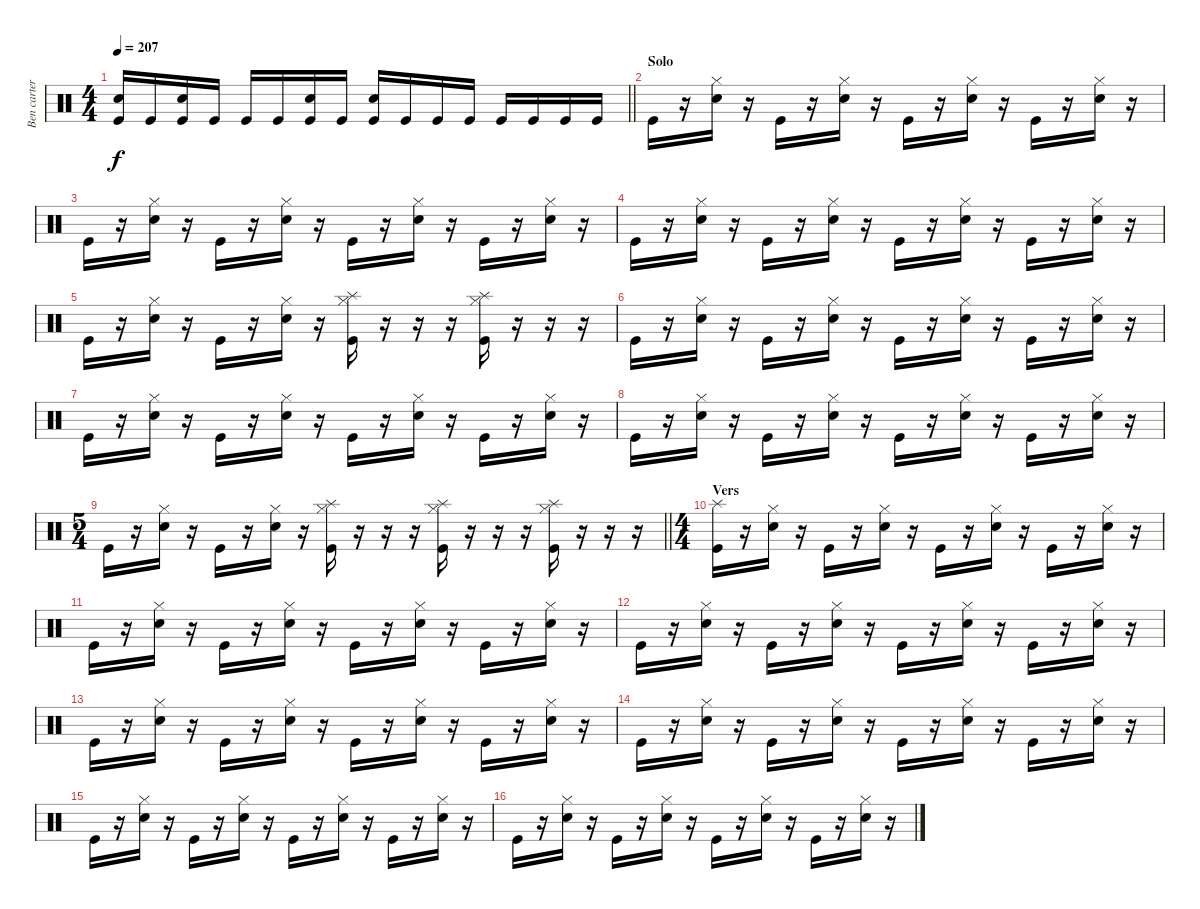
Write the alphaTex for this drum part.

\track ("Ben carter" "Ben carter") {instrument percussion}
\staff {score}
\articulation defaults
\ts (4 4)
\tempo 207
\clef neutral
\barLineRight lightlight
\ks c
("Snare (hit) 2" "Kick (hit)").16{dy f} "Kick (hit)".16 ("Snare (hit) 2" "Kick (hit)").16 "Kick (hit)".16 "Kick (hit)".16 "Kick (hit)".16 ("Snare (hit) 2" "Kick (hit)").16 "Kick (hit)".16 ("Snare (hit) 2" "Kick (hit)").16 "Kick (hit)".16 "Kick (hit)".16 "Kick (hit)".16 "Kick (hit)".16 "Kick (hit)".16 "Kick (hit)".16 "Kick (hit)".16 |
\section ("" "Solo")
"Kick (hit)".16 r.16 ("Hi-Hat (closed)" "Electric Snare (hit)").16 r.16 "Kick (hit)".16 r.16 ("Hi-Hat (closed)" "Electric Snare (hit)").16 r.16 "Kick (hit)".16 r.16 ("Hi-Hat (closed)" "Electric Snare (hit)").16 r.16 "Kick (hit)".16 r.16 ("Hi-Hat (closed)" "Electric Snare (hit)").16 r.16 |
"Kick (hit)".16 r.16 ("Hi-Hat (closed)" "Electric Snare (hit)").16 r.16 "Kick (hit)".16 r.16 ("Hi-Hat (closed)" "Electric Snare (hit)").16 r.16 "Kick (hit)".16 r.16 ("Hi-Hat (closed)" "Electric Snare (hit)").16 r.16 "Kick (hit)".16 r.16 ("Hi-Hat (closed)" "Electric Snare (hit)").16 r.16 |
"Kick (hit)".16 r.16 ("Hi-Hat (closed)" "Electric Snare (hit)").16 r.16 "Kick (hit)".16 r.16 ("Hi-Hat (closed)" "Electric Snare (hit)").16 r.16 "Kick (hit)".16 r.16 ("Hi-Hat (closed)" "Electric Snare (hit)").16 r.16 "Kick (hit)".16 r.16 ("Hi-Hat (closed)" "Electric Snare (hit)").16 r.16 |
"Kick (hit)".16 r.16 ("Hi-Hat (closed)" "Electric Snare (hit)").16 r.16 "Kick (hit)".16 r.16 ("Hi-Hat (closed)" "Electric Snare (hit)").16 r.16 ("Hi-Hat (closed)" "Splash (hit)" "Kick (hit)").16 r.16 r.16 r.16 ("Hi-Hat (closed)" "Splash (hit)" "Kick (hit)").16 r.16 r.16 r.16 |
"Kick (hit)".16 r.16 ("Hi-Hat (closed)" "Electric Snare (hit)").16 r.16 "Kick (hit)".16 r.16 ("Hi-Hat (closed)" "Electric Snare (hit)").16 r.16 "Kick (hit)".16 r.16 ("Hi-Hat (closed)" "Electric Snare (hit)").16 r.16 "Kick (hit)".16 r.16 ("Hi-Hat (closed)" "Electric Snare (hit)").16 r.16 |
"Kick (hit)".16 r.16 ("Hi-Hat (closed)" "Electric Snare (hit)").16 r.16 "Kick (hit)".16 r.16 ("Hi-Hat (closed)" "Electric Snare (hit)").16 r.16 "Kick (hit)".16 r.16 ("Hi-Hat (closed)" "Electric Snare (hit)").16 r.16 "Kick (hit)".16 r.16 ("Hi-Hat (closed)" "Electric Snare (hit)").16 r.16 |
"Kick (hit)".16 r.16 ("Hi-Hat (closed)" "Electric Snare (hit)").16 r.16 "Kick (hit)".16 r.16 ("Hi-Hat (closed)" "Electric Snare (hit)").16 r.16 "Kick (hit)".16 r.16 ("Hi-Hat (closed)" "Electric Snare (hit)").16 r.16 "Kick (hit)".16 r.16 ("Hi-Hat (closed)" "Electric Snare (hit)").16 r.16 |
\ts (5 4)
\barLineRight lightlight "Kick (hit)".16
r.16 ("Hi-Hat (closed)" "Electric Snare (hit)").16 r.16 "Kick (hit)".16 r.16 ("Hi-Hat (closed)" "Electric Snare (hit)").16 r.16 ("Hi-Hat (closed)" "Splash (hit)" "Kick (hit)").16 r.16 r.16 r.16 ("Hi-Hat (closed)" "Splash (hit)" "Kick (hit)").16 r.16 r.16 r.16 ("Hi-Hat (closed)" "Splash (hit)" "Kick (hit)").16 r.16 r.16 r.16 |
\ts (4 4)
\section ("" "Vers")
("Splash (hit)" "Kick (hit)").16 r.16 ("Hi-Hat (closed)" "Electric Snare (hit)").16 r.16 "Kick (hit)".16 r.16 ("Hi-Hat (closed)" "Electric Snare (hit)").16 r.16 "Kick (hit)".16 r.16 ("Hi-Hat (closed)" "Electric Snare (hit)").16 r.16 "Kick (hit)".16 r.16 ("Hi-Hat (closed)" "Electric Snare (hit)").16 r.16 |
"Kick (hit)".16 r.16 ("Hi-Hat (closed)" "Electric Snare (hit)").16 r.16 "Kick (hit)".16 r.16 ("Hi-Hat (closed)" "Electric Snare (hit)").16 r.16 "Kick (hit)".16 r.16 ("Hi-Hat (closed)" "Electric Snare (hit)").16 r.16 "Kick (hit)".16 r.16 ("Hi-Hat (closed)" "Electric Snare (hit)").16 r.16 |
"Kick (hit)".16 r.16 ("Hi-Hat (closed)" "Electric Snare (hit)").16 r.16 "Kick (hit)".16 r.16 ("Hi-Hat (closed)" "Electric Snare (hit)").16 r.16 "Kick (hit)".16 r.16 ("Hi-Hat (closed)" "Electric Snare (hit)").16 r.16 "Kick (hit)".16 r.16 ("Hi-Hat (closed)" "Electric Snare (hit)").16 r.16 |
"Kick (hit)".16 r.16 ("Hi-Hat (closed)" "Electric Snare (hit)").16 r.16 "Kick (hit)".16 r.16 ("Hi-Hat (closed)" "Electric Snare (hit)").16 r.16 "Kick (hit)".16 r.16 ("Hi-Hat (closed)" "Electric Snare (hit)").16 r.16 "Kick (hit)".16 r.16 ("Hi-Hat (closed)" "Electric Snare (hit)").16 r.16 |
"Kick (hit)".16 r.16 ("Hi-Hat (closed)" "Electric Snare (hit)").16 r.16 "Kick (hit)".16 r.16 ("Hi-Hat (closed)" "Electric Snare (hit)").16 r.16 "Kick (hit)".16 r.16 ("Hi-Hat (closed)" "Electric Snare (hit)").16 r.16 "Kick (hit)".16 r.16 ("Hi-Hat (closed)" "Electric Snare (hit)").16 r.16 |
"Kick (hit)".16 r.16 ("Hi-Hat (closed)" "Electric Snare (hit)").16 r.16 "Kick (hit)".16 r.16 ("Hi-Hat (closed)" "Electric Snare (hit)").16 r.16 "Kick (hit)".16 r.16 ("Hi-Hat (closed)" "Electric Snare (hit)").16 r.16 "Kick (hit)".16 r.16 ("Hi-Hat (closed)" "Electric Snare (hit)").16 r.16 |
"Kick (hit)".16 r.16 ("Hi-Hat (closed)" "Electric Snare (hit)").16 r.16 "Kick (hit)".16 r.16 ("Hi-Hat (closed)" "Electric Snare (hit)").16 r.16 "Kick (hit)".16 r.16 ("Hi-Hat (closed)" "Electric Snare (hit)").16 r.16 "Kick (hit)".16 r.16 ("Hi-Hat (closed)" "Electric Snare (hit)").16 r.16
